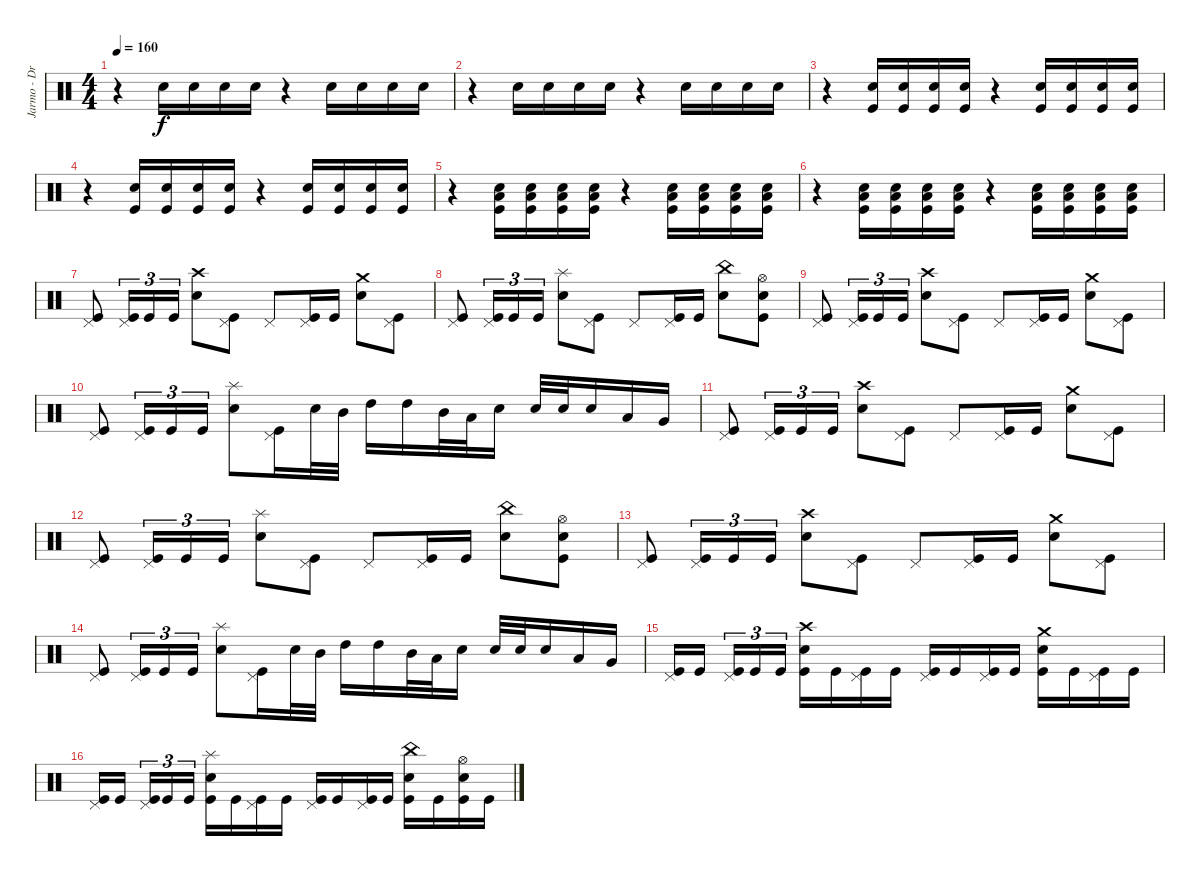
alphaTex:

\track ("Jarmo - Drums" "Jarmo - Dr") {instrument percussion}
\staff {score}
\articulation defaults
\ts (4 4)
\tempo 160
\clef neutral
\ks c
r.4{dy f} "Electric Snare (hit)".16 "Electric Snare (hit)".16 "Electric Snare (hit)".16 "Electric Snare (hit)".16 r.4 "Electric Snare (hit)".16 "Electric Snare (hit)".16 "Electric Snare (hit)".16 "Electric Snare (hit)".16 |
r.4 "Electric Snare (hit)".16 "Electric Snare (hit)".16 "Electric Snare (hit)".16 "Electric Snare (hit)".16 r.4 "Electric Snare (hit)".16 "Electric Snare (hit)".16 "Electric Snare (hit)".16 "Electric Snare (hit)".16 |
r.4 ("Electric Snare (hit)" "Kick (hit)").16 ("Electric Snare (hit)" "Kick (hit)").16 ("Electric Snare (hit)" "Kick (hit)").16 ("Electric Snare (hit)" "Kick (hit)").16 r.4 ("Electric Snare (hit)" "Kick (hit)").16 ("Electric Snare (hit)" "Kick (hit)").16 ("Electric Snare (hit)" "Kick (hit)").16 ("Electric Snare (hit)" "Kick (hit)").16 |
r.4 ("Electric Snare (hit)" "Kick (hit)").16 ("Electric Snare (hit)" "Kick (hit)").16 ("Electric Snare (hit)" "Kick (hit)").16 ("Electric Snare (hit)" "Kick (hit)").16 r.4 ("Electric Snare (hit)" "Kick (hit)").16 ("Electric Snare (hit)" "Kick (hit)").16 ("Electric Snare (hit)" "Kick (hit)").16 ("Electric Snare (hit)" "Kick (hit)").16 |
r.4 ("Low Tom (hit)" "Electric Snare (hit)" "Kick (hit)").16 ("Low Tom (hit)" "Electric Snare (hit)" "Kick (hit)").16 ("Low Tom (hit)" "Electric Snare (hit)" "Kick (hit)").16 ("Low Tom (hit)" "Electric Snare (hit)" "Kick (hit)").16 r.4 ("Low Tom (hit)" "Electric Snare (hit)" "Kick (hit)").16 ("Low Tom (hit)" "Electric Snare (hit)" "Kick (hit)").16 ("Low Tom (hit)" "Electric Snare (hit)" "Kick (hit)").16 ("Low Tom (hit)" "Electric Snare (hit)" "Kick (hit)").16 |
r.4 ("Low Tom (hit)" "Electric Snare (hit)" "Kick (hit)").16 ("Low Tom (hit)" "Electric Snare (hit)" "Kick (hit)").16 ("Low Tom (hit)" "Electric Snare (hit)" "Kick (hit)").16 ("Low Tom (hit)" "Electric Snare (hit)" "Kick (hit)").16 r.4 ("Low Tom (hit)" "Electric Snare (hit)" "Kick (hit)").16 ("Low Tom (hit)" "Electric Snare (hit)" "Kick (hit)").16 ("Low Tom (hit)" "Electric Snare (hit)" "Kick (hit)").16 ("Low Tom (hit)" "Electric Snare (hit)" "Kick (hit)").16 |
("Kick (hit)" "Pedal Hi-Hat (hit)").8 ("Kick (hit)" "Pedal Hi-Hat (hit)").16{tu (3 2)} "Kick (hit)".16{tu (3 2)} "Kick (hit)".16{tu (3 2)} ("Electric Snare (hit)" "Crash high (hit)").8 ("Kick (hit)" "Pedal Hi-Hat (hit)").8 "Pedal Hi-Hat (hit)".8 ("Kick (hit)" "Pedal Hi-Hat (hit)").16 "Kick (hit)".16 ("Electric Snare (hit)" "Crash medium (hit)").8 ("Kick (hit)" "Pedal Hi-Hat (hit)").8 |
("Kick (hit)" "Pedal Hi-Hat (hit)").8 ("Kick (hit)" "Pedal Hi-Hat (hit)").16{tu (3 2)} "Kick (hit)".16{tu (3 2)} "Kick (hit)".16{tu (3 2)} ("Electric Snare (hit)" "Splash (hit)").8 ("Kick (hit)" "Pedal Hi-Hat (hit)").8 "Pedal Hi-Hat (hit)".8 ("Kick (hit)" "Pedal Hi-Hat (hit)").16 "Kick (hit)".16 ("Electric Snare (hit)" "China (hit)").8 ("Kick (hit)" "Electric Snare (hit)" "Hi-Hat (open)").8 |
("Kick (hit)" "Pedal Hi-Hat (hit)").8 ("Kick (hit)" "Pedal Hi-Hat (hit)").16{tu (3 2)} "Kick (hit)".16{tu (3 2)} "Kick (hit)".16{tu (3 2)} ("Electric Snare (hit)" "Crash high (hit)").8 ("Kick (hit)" "Pedal Hi-Hat (hit)").8 "Pedal Hi-Hat (hit)".8 ("Kick (hit)" "Pedal Hi-Hat (hit)").16 "Kick (hit)".16 ("Electric Snare (hit)" "Crash medium (hit)").8 ("Kick (hit)" "Pedal Hi-Hat (hit)").8 |
("Kick (hit)" "Pedal Hi-Hat (hit)").8 ("Kick (hit)" "Pedal Hi-Hat (hit)").16{tu (3 2)} "Kick (hit)".16{tu (3 2)} "Kick (hit)".16{tu (3 2)} ("Electric Snare (hit)" "Splash (hit)").8 ("Kick (hit)" "Pedal Hi-Hat (hit)").16 "Electric Snare (hit)".32 "Mid Tom (hit)".32 "High Tom (hit)".16 "High Tom (hit)".16 "Mid Tom (hit)".32 "Low Tom (hit)".32 "Electric Snare (hit)".16 "Electric Snare (hit)".32 "Electric Snare (hit)".32 "Electric Snare (hit)".16 "Low Tom (hit)".16 "Very Low Tom (hit)".16 |
("Kick (hit)" "Pedal Hi-Hat (hit)").8 ("Kick (hit)" "Pedal Hi-Hat (hit)").16{tu (3 2)} "Kick (hit)".16{tu (3 2)} "Kick (hit)".16{tu (3 2)} ("Electric Snare (hit)" "Crash high (hit)").8 ("Kick (hit)" "Pedal Hi-Hat (hit)").8 "Pedal Hi-Hat (hit)".8 ("Kick (hit)" "Pedal Hi-Hat (hit)").16 "Kick (hit)".16 ("Electric Snare (hit)" "Crash medium (hit)").8 ("Kick (hit)" "Pedal Hi-Hat (hit)").8 |
("Kick (hit)" "Pedal Hi-Hat (hit)").8 ("Kick (hit)" "Pedal Hi-Hat (hit)").16{tu (3 2)} "Kick (hit)".16{tu (3 2)} "Kick (hit)".16{tu (3 2)} ("Electric Snare (hit)" "Splash (hit)").8 ("Kick (hit)" "Pedal Hi-Hat (hit)").8 "Pedal Hi-Hat (hit)".8 ("Kick (hit)" "Pedal Hi-Hat (hit)").16 "Kick (hit)".16 ("Electric Snare (hit)" "China (hit)").8 ("Kick (hit)" "Electric Snare (hit)" "Hi-Hat (open)").8 |
("Kick (hit)" "Pedal Hi-Hat (hit)").8 ("Kick (hit)" "Pedal Hi-Hat (hit)").16{tu (3 2)} "Kick (hit)".16{tu (3 2)} "Kick (hit)".16{tu (3 2)} ("Electric Snare (hit)" "Crash high (hit)").8 ("Kick (hit)" "Pedal Hi-Hat (hit)").8 "Pedal Hi-Hat (hit)".8 ("Kick (hit)" "Pedal Hi-Hat (hit)").16 "Kick (hit)".16 ("Electric Snare (hit)" "Crash medium (hit)").8 ("Kick (hit)" "Pedal Hi-Hat (hit)").8 |
("Kick (hit)" "Pedal Hi-Hat (hit)").8 ("Kick (hit)" "Pedal Hi-Hat (hit)").16{tu (3 2)} "Kick (hit)".16{tu (3 2)} "Kick (hit)".16{tu (3 2)} ("Electric Snare (hit)" "Splash (hit)").8 ("Kick (hit)" "Pedal Hi-Hat (hit)").16 "Electric Snare (hit)".32 "Mid Tom (hit)".32 "High Tom (hit)".16 "High Tom (hit)".16 "Mid Tom (hit)".32 "Low Tom (hit)".32 "Electric Snare (hit)".16 "Electric Snare (hit)".32 "Electric Snare (hit)".32 "Electric Snare (hit)".16 "Low Tom (hit)".16 "Very Low Tom (hit)".16 |
("Kick (hit)" "Pedal Hi-Hat (hit)").16 "Kick (hit)".16 ("Kick (hit)" "Pedal Hi-Hat (hit)").16{tu (3 2)} "Kick (hit)".16{tu (3 2)} "Kick (hit)".16{tu (3 2)} ("Kick (hit)" "Electric Snare (hit)" "Crash high (hit)").16 "Kick (hit)".16 ("Kick (hit)" "Pedal Hi-Hat (hit)").16 "Kick (hit)".16 ("Kick (hit)" "Pedal Hi-Hat (hit)").16 "Kick (hit)".16 ("Kick (hit)" "Pedal Hi-Hat (hit)").16 "Kick (hit)".16 ("Kick (hit)" "Electric Snare (hit)" "Crash medium (hit)").16 "Kick (hit)".16 ("Kick (hit)" "Pedal Hi-Hat (hit)").16 "Kick (hit)".16 |
("Kick (hit)" "Pedal Hi-Hat (hit)").16 "Kick (hit)".16 ("Kick (hit)" "Pedal Hi-Hat (hit)").16{tu (3 2)} "Kick (hit)".16{tu (3 2)} "Kick (hit)".16{tu (3 2)} ("Kick (hit)" "Electric Snare (hit)" "Splash (hit)").16 "Kick (hit)".16 ("Kick (hit)" "Pedal Hi-Hat (hit)").16 "Kick (hit)".16 ("Kick (hit)" "Pedal Hi-Hat (hit)").16 "Kick (hit)".16 ("Kick (hit)" "Pedal Hi-Hat (hit)").16 "Kick (hit)".16 ("Kick (hit)" "Electric Snare (hit)" "China (hit)").16 "Kick (hit)".16 ("Kick (hit)" "Electric Snare (hit)" "Hi-Hat (open)").16 "Kick (hit)".16
